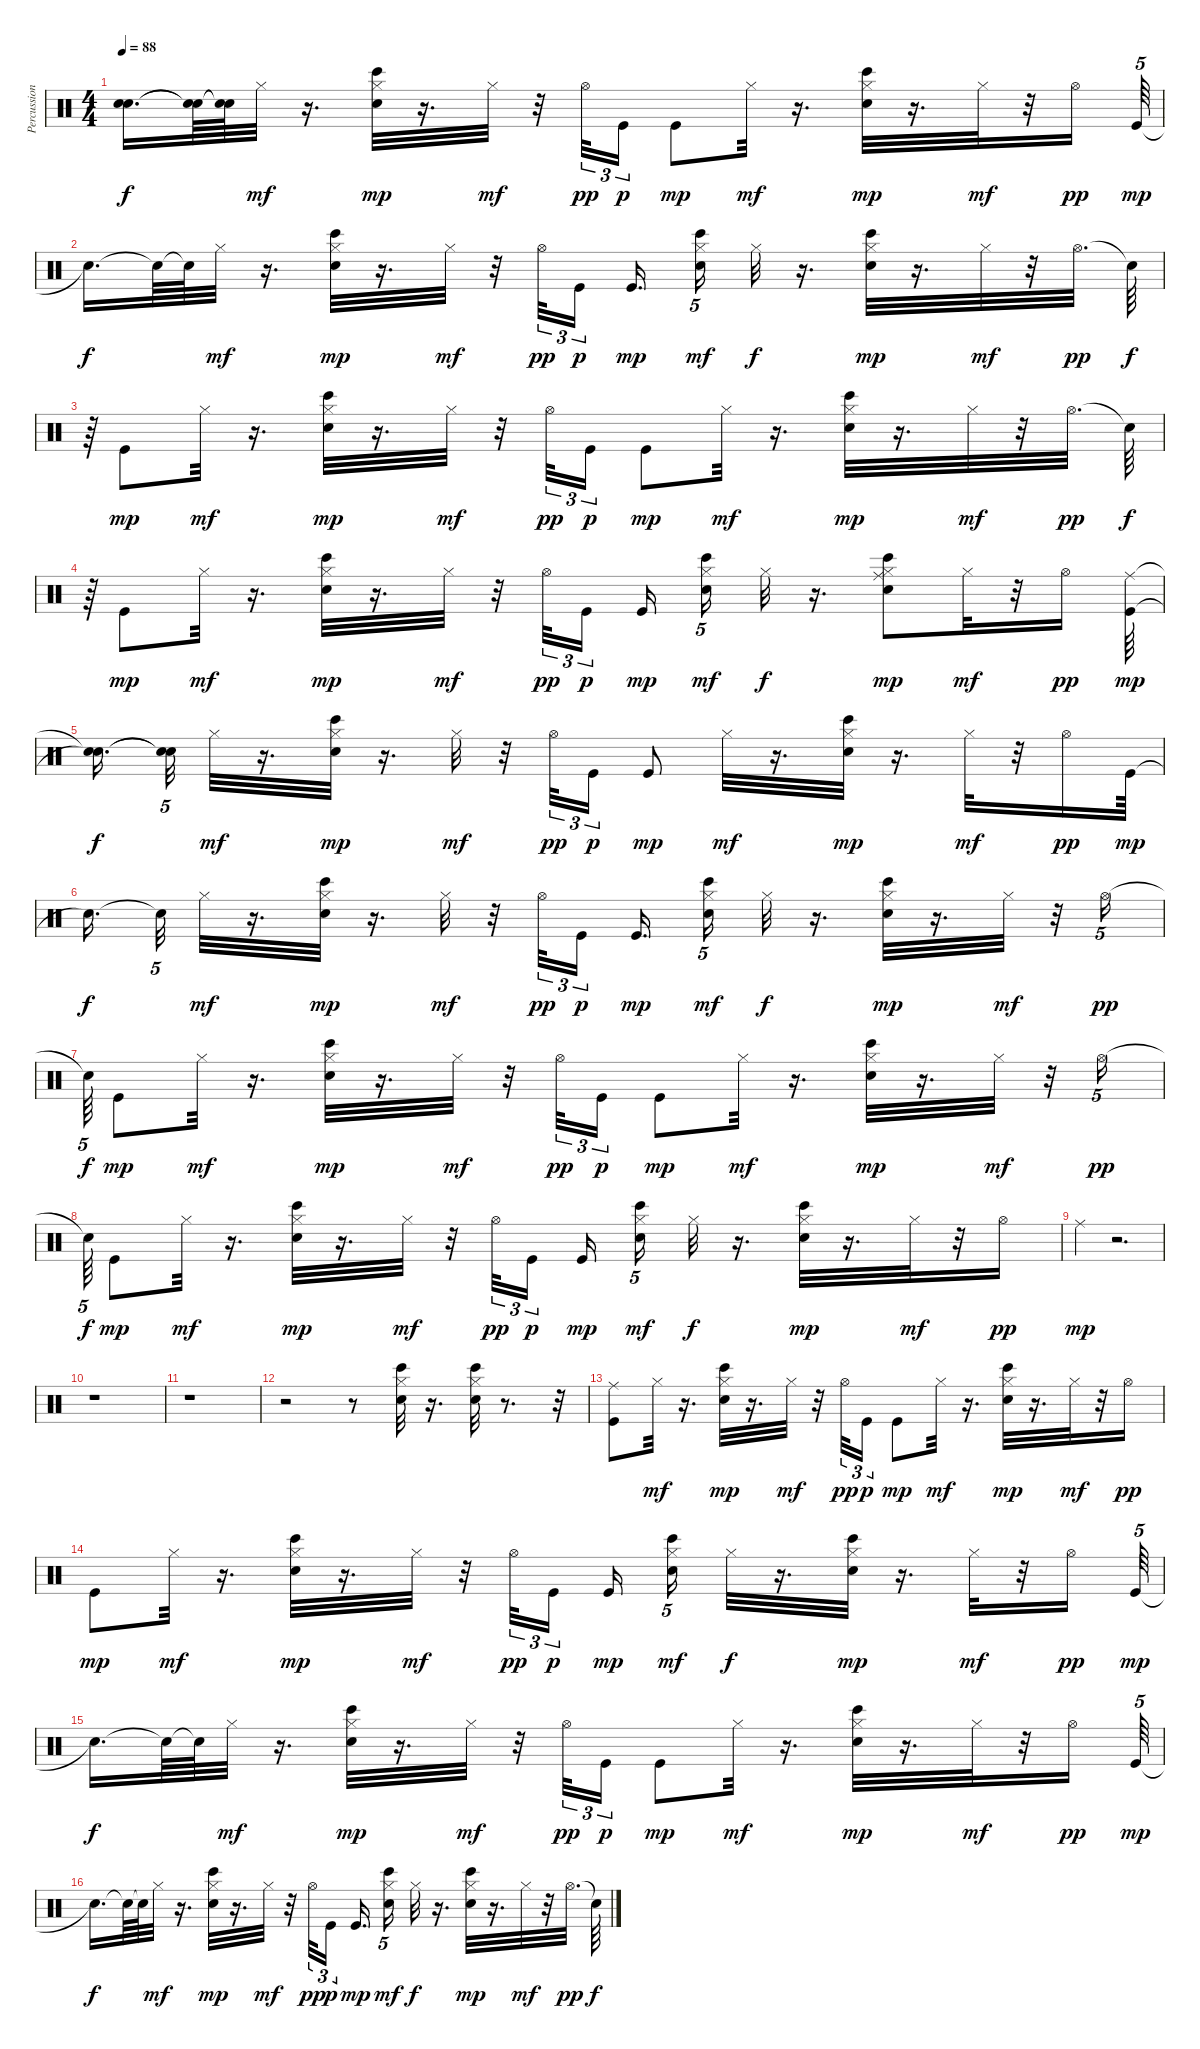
\track ("Percussion" "Percussion") {instrument percussion}
\staff {score}
\articulation defaults
\ts (4 4)
\tempo 88
\clef neutral
\ks c
("Snare (hit)"{t} "Snare (hit)"{t}).16{d dy f} ("Snare (hit)"{t} "Snare (hit)"{t}).64 ("Snare (hit)"{t} "Snare (hit)"{t}).64 "Hi-Hat (closed)".32{dy mf} r.16{d} ("Bongo High (hit)" "Hi-Hat (closed)" "Electric Snare (hit)").32{dy mp} r.16{d} "Hi-Hat (closed)".32{dy mf} r.32 "Hi-Hat (open)".32{tu (3 2) dy pp} "Kick (hit)".16{tu (3 2) dy p} "Kick (hit)".8{dy mp} "Hi-Hat (closed)".32{dy mf} r.16{d} ("Bongo High (hit)" "Hi-Hat (closed)" "Electric Snare (hit)").32{dy mp} r.16{d} "Hi-Hat (closed)".32{dy mf} r.32 "Hi-Hat (open)".16{dy pp} "Kick (hit)".64{tu (5 4) dy mp} |
"Snare (hit)"{t}.16{d dy f} "Snare (hit)"{t}.64 "Snare (hit)"{t}.64 "Hi-Hat (closed)".32{dy mf} r.16{d} ("Bongo High (hit)" "Hi-Hat (closed)" "Electric Snare (hit)").32{dy mp} r.16{d} "Hi-Hat (closed)".32{dy mf} r.32 "Hi-Hat (open)".32{tu (3 2) dy pp} "Kick (hit)".16{tu (3 2) dy p} "Kick (hit)".16{d dy mp} ("Bongo High (hit)" "Electric Snare (hit)" "Hi-Hat (closed)").16{tu (5 4) dy mf} "Hi-Hat (closed)".32{dy f} r.16{d} ("Bongo High (hit)" "Hi-Hat (closed)" "Electric Snare (hit)").32{dy mp} r.16{d} "Hi-Hat (closed)".32{dy mf} r.32 "Hi-Hat (open)".32{d dy pp} "Snare (hit)"{t}.64{dy f} |
r.64 "Kick (hit)".8{dy mp} "Hi-Hat (closed)".32{dy mf} r.16{d} ("Bongo High (hit)" "Hi-Hat (closed)" "Electric Snare (hit)").32{dy mp} r.16{d} "Hi-Hat (closed)".32{dy mf} r.32 "Hi-Hat (open)".32{tu (3 2) dy pp} "Kick (hit)".16{tu (3 2) dy p} "Kick (hit)".8{dy mp} "Hi-Hat (closed)".32{dy mf} r.16{d} ("Bongo High (hit)" "Hi-Hat (closed)" "Electric Snare (hit)").32{dy mp} r.16{d} "Hi-Hat (closed)".32{dy mf} r.32 "Hi-Hat (open)".32{d dy pp} "Snare (hit)"{t}.64{dy f} |
r.64 "Kick (hit)".8{dy mp} "Hi-Hat (closed)".32{dy mf} r.16{d} ("Bongo High (hit)" "Hi-Hat (closed)" "Electric Snare (hit)").32{dy mp} r.16{d} "Hi-Hat (closed)".32{dy mf} r.32 "Hi-Hat (open)".32{tu (3 2) dy pp} "Kick (hit)".16{tu (3 2) dy p} "Kick (hit)".16{dy mp} ("Bongo High (hit)" "Electric Snare (hit)" "Hi-Hat (closed)").16{tu (5 4) dy mf} "Hi-Hat (closed)".32{dy f} r.16{d} ("Ride (middle)" "Bongo High (hit)" "Hi-Hat (closed)" "Electric Snare (hit)").8{dy mp} "Hi-Hat (closed)".32{dy mf} r.32 "Hi-Hat (open)".16{dy pp} ("Ride (middle)" "Kick (hit)").64{dy mp} |
("Snare (hit)"{t} "Snare (hit)"{t}).16{d dy f} ("Snare (hit)"{t} "Snare (hit)"{t}).32{tu (5 4)} "Hi-Hat (closed)".32{dy mf} r.16{d} ("Bongo High (hit)" "Hi-Hat (closed)" "Electric Snare (hit)").32{dy mp} r.16{d} "Hi-Hat (closed)".32{dy mf} r.32 "Hi-Hat (open)".32{tu (3 2) dy pp} "Kick (hit)".16{tu (3 2) dy p} "Kick (hit)".8{dy mp} "Hi-Hat (closed)".32{dy mf} r.16{d} ("Bongo High (hit)" "Hi-Hat (closed)" "Electric Snare (hit)").32{dy mp} r.16{d} "Hi-Hat (closed)".32{dy mf} r.32 "Hi-Hat (open)".16{dy pp} "Kick (hit)".64{dy mp} |
"Snare (hit)"{t}.16{d dy f} "Snare (hit)"{t}.32{tu (5 4)} "Hi-Hat (closed)".32{dy mf} r.16{d} ("Bongo High (hit)" "Hi-Hat (closed)" "Electric Snare (hit)").32{dy mp} r.16{d} "Hi-Hat (closed)".32{dy mf} r.32 "Hi-Hat (open)".32{tu (3 2) dy pp} "Kick (hit)".16{tu (3 2) dy p} "Kick (hit)".16{d dy mp} ("Bongo High (hit)" "Electric Snare (hit)" "Hi-Hat (closed)").16{tu (5 4) dy mf} "Hi-Hat (closed)".32{dy f} r.16{d} ("Bongo High (hit)" "Hi-Hat (closed)" "Electric Snare (hit)").32{dy mp} r.16{d} "Hi-Hat (closed)".32{dy mf} r.32 "Hi-Hat (open)".16{tu (5 4) dy pp} |
"Snare (hit)"{t}.64{tu (5 4) dy f} "Kick (hit)".8{dy mp} "Hi-Hat (closed)".32{dy mf} r.16{d} ("Bongo High (hit)" "Hi-Hat (closed)" "Electric Snare (hit)").32{dy mp} r.16{d} "Hi-Hat (closed)".32{dy mf} r.32 "Hi-Hat (open)".32{tu (3 2) dy pp} "Kick (hit)".16{tu (3 2) dy p} "Kick (hit)".8{dy mp} "Hi-Hat (closed)".32{dy mf} r.16{d} ("Bongo High (hit)" "Hi-Hat (closed)" "Electric Snare (hit)").32{dy mp} r.16{d} "Hi-Hat (closed)".32{dy mf} r.32 "Hi-Hat (open)".16{tu (5 4) dy pp} |
"Snare (hit)"{t}.64{tu (5 4) dy f} "Kick (hit)".8{dy mp} "Hi-Hat (closed)".32{dy mf} r.16{d} ("Bongo High (hit)" "Hi-Hat (closed)" "Electric Snare (hit)").32{dy mp} r.16{d} "Hi-Hat (closed)".32{dy mf} r.32 "Hi-Hat (open)".32{tu (3 2) dy pp} "Kick (hit)".16{tu (3 2) dy p} "Kick (hit)".16{dy mp} ("Bongo High (hit)" "Electric Snare (hit)" "Hi-Hat (closed)").16{tu (5 4) dy mf} "Hi-Hat (closed)".32{dy f} r.16{d} ("Bongo High (hit)" "Hi-Hat (closed)" "Electric Snare (hit)").32{dy mp} r.16{d} "Hi-Hat (closed)".32{dy mf} r.32 "Hi-Hat (open)".16{dy pp} |
"Ride (middle)".4{dy mp} r.2{d} |
r.1 |
r.1 |
r.2 r.8 ("Hi-Hat (closed)" "Snare (hit) 2" "Bongo High (hit)").32 r.16{d} ("Bongo High (hit)" "Hi-Hat (closed)" "Snare (hit) 2").32 r.8{d} r.32 |
("Ride (middle)" "Kick (hit)").8 "Hi-Hat (closed)".32{dy mf} r.16{d} ("Bongo High (hit)" "Hi-Hat (closed)" "Electric Snare (hit)").32{dy mp} r.16{d} "Hi-Hat (closed)".32{dy mf} r.32 "Hi-Hat (open)".32{tu (3 2) dy pp} "Kick (hit)".16{tu (3 2) dy p} "Kick (hit)".8{dy mp} "Hi-Hat (closed)".32{dy mf} r.16{d} ("Bongo High (hit)" "Hi-Hat (closed)" "Electric Snare (hit)").32{dy mp} r.16{d} "Hi-Hat (closed)".32{dy mf} r.32 "Hi-Hat (open)".16{dy pp} |
"Kick (hit)".8{dy mp} "Hi-Hat (closed)".32{dy mf} r.16{d} ("Bongo High (hit)" "Hi-Hat (closed)" "Electric Snare (hit)").32{dy mp} r.16{d} "Hi-Hat (closed)".32{dy mf} r.32 "Hi-Hat (open)".32{tu (3 2) dy pp} "Kick (hit)".16{tu (3 2) dy p} "Kick (hit)".16{dy mp} ("Bongo High (hit)" "Electric Snare (hit)" "Hi-Hat (closed)").16{tu (5 4) dy mf} "Hi-Hat (closed)".32{dy f} r.16{d} ("Bongo High (hit)" "Hi-Hat (closed)" "Electric Snare (hit)").32{dy mp} r.16{d} "Hi-Hat (closed)".32{dy mf} r.32 "Hi-Hat (open)".16{dy pp} "Kick (hit)".64{tu (5 4) dy mp} |
"Snare (hit)"{t}.16{d dy f} "Snare (hit)"{t}.64 "Snare (hit)"{t}.64 "Hi-Hat (closed)".32{dy mf} r.16{d} ("Bongo High (hit)" "Hi-Hat (closed)" "Electric Snare (hit)").32{dy mp} r.16{d} "Hi-Hat (closed)".32{dy mf} r.32 "Hi-Hat (open)".32{tu (3 2) dy pp} "Kick (hit)".16{tu (3 2) dy p} "Kick (hit)".8{dy mp} "Hi-Hat (closed)".32{dy mf} r.16{d} ("Bongo High (hit)" "Hi-Hat (closed)" "Electric Snare (hit)").32{dy mp} r.16{d} "Hi-Hat (closed)".32{dy mf} r.32 "Hi-Hat (open)".16{dy pp} "Kick (hit)".64{tu (5 4) dy mp} |
"Snare (hit)"{t}.16{d dy f} "Snare (hit)"{t}.64 "Snare (hit)"{t}.64 "Hi-Hat (closed)".32{dy mf} r.16{d} ("Bongo High (hit)" "Hi-Hat (closed)" "Electric Snare (hit)").32{dy mp} r.16{d} "Hi-Hat (closed)".32{dy mf} r.32 "Hi-Hat (open)".32{tu (3 2) dy pp} "Kick (hit)".16{tu (3 2) dy p} "Kick (hit)".16{d dy mp} ("Bongo High (hit)" "Electric Snare (hit)" "Hi-Hat (closed)").16{tu (5 4) dy mf} "Hi-Hat (closed)".32{dy f} r.16{d} ("Bongo High (hit)" "Hi-Hat (closed)" "Electric Snare (hit)").32{dy mp} r.16{d} "Hi-Hat (closed)".32{dy mf} r.32 "Hi-Hat (open)".32{d dy pp} "Snare (hit)"{t}.64{dy f}
